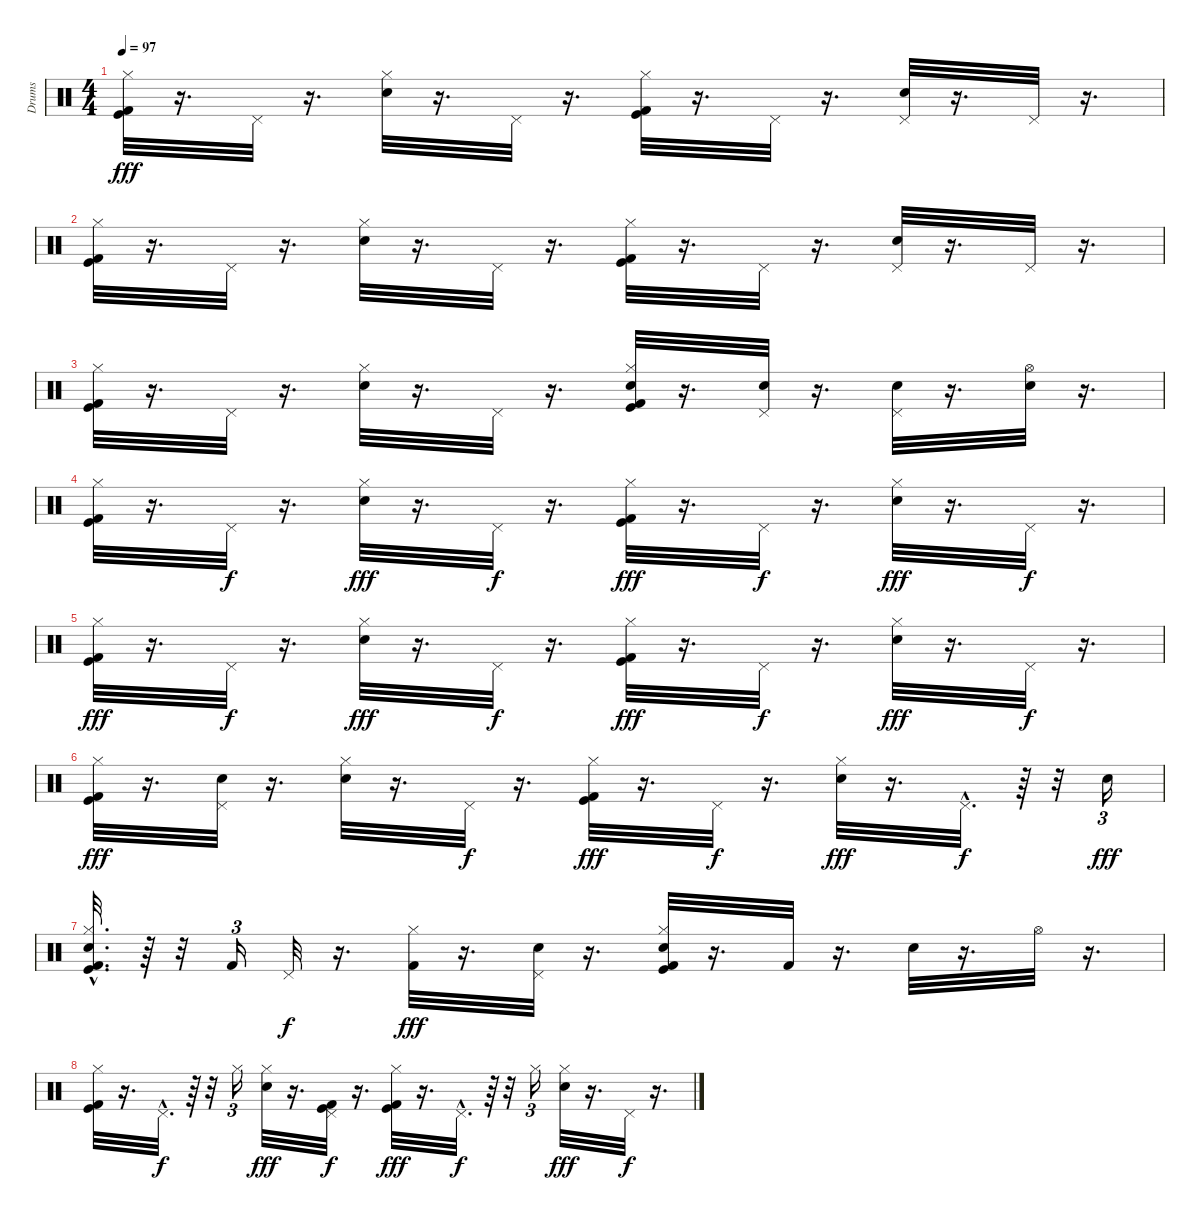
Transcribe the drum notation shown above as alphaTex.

\track ("Drums" "Drums") {instrument percussion}
\staff {score}
\articulation defaults
\ts (4 4)
\tempo 97
\clef neutral
\ks c
("Kick (hit)" "Kick (hit) 2" "Hi-Hat (closed)").32{dy fff} r.16{d} "Pedal Hi-Hat (hit)".32 r.16{d} ("Hi-Hat (closed)" "Snare (hit) 2").32 r.16{d} "Pedal Hi-Hat (hit)".32 r.16{d} ("Kick (hit)" "Kick (hit) 2" "Hi-Hat (closed)").32 r.16{d} "Pedal Hi-Hat (hit)".32 r.16{d} ("Pedal Hi-Hat (hit)" "Snare (hit) 2").32 r.16{d} "Pedal Hi-Hat (hit)".32 r.16{d} |
("Kick (hit)" "Kick (hit) 2" "Hi-Hat (closed)").32 r.16{d} "Pedal Hi-Hat (hit)".32 r.16{d} ("Hi-Hat (closed)" "Snare (hit) 2").32 r.16{d} "Pedal Hi-Hat (hit)".32 r.16{d} ("Kick (hit)" "Kick (hit) 2" "Hi-Hat (closed)").32 r.16{d} "Pedal Hi-Hat (hit)".32 r.16{d} ("Pedal Hi-Hat (hit)" "Snare (hit) 2").32 r.16{d} "Pedal Hi-Hat (hit)".32 r.16{d} |
("Kick (hit)" "Kick (hit) 2" "Hi-Hat (closed)").32 r.16{d} "Pedal Hi-Hat (hit)".32 r.16{d} ("Snare (hit) 2" "Hi-Hat (closed)").32 r.16{d} "Pedal Hi-Hat (hit)".32 r.16{d} ("Snare (hit) 2" "Kick (hit)" "Kick (hit) 2" "Hi-Hat (closed)").32 r.16{d} ("Snare (hit) 2" "Pedal Hi-Hat (hit)").32 r.16{d} ("Pedal Hi-Hat (hit)" "Snare (hit) 2").32 r.16{d} ("Snare (hit) 2" "Hi-Hat (open)").32 r.16{d} |
("Kick (hit)" "Kick (hit) 2" "Hi-Hat (closed)").32 r.16{d} "Pedal Hi-Hat (hit)".32{dy f} r.16{d} ("Hi-Hat (closed)" "Snare (hit) 2").32{dy fff} r.16{d} "Pedal Hi-Hat (hit)".32{dy f} r.16{d} ("Kick (hit)" "Kick (hit) 2" "Hi-Hat (closed)").32{dy fff} r.16{d} "Pedal Hi-Hat (hit)".32{dy f} r.16{d} ("Hi-Hat (closed)" "Snare (hit) 2").32{dy fff} r.16{d} "Pedal Hi-Hat (hit)".32{dy f} r.16{d} |
("Kick (hit)" "Kick (hit) 2" "Hi-Hat (closed)").32{dy fff} r.16{d} "Pedal Hi-Hat (hit)".32{dy f} r.16{d} ("Hi-Hat (closed)" "Snare (hit) 2").32{dy fff} r.16{d} "Pedal Hi-Hat (hit)".32{dy f} r.16{d} ("Kick (hit)" "Kick (hit) 2" "Hi-Hat (closed)").32{dy fff} r.16{d} "Pedal Hi-Hat (hit)".32{dy f} r.16{d} ("Hi-Hat (closed)" "Snare (hit) 2").32{dy fff} r.16{d} "Pedal Hi-Hat (hit)".32{dy f} r.16{d} |
("Kick (hit)" "Kick (hit) 2" "Hi-Hat (closed)").32{dy fff} r.16{d} ("Snare (hit) 2" "Pedal Hi-Hat (hit)").32 r.16{d} ("Hi-Hat (closed)" "Snare (hit) 2").32 r.16{d} "Pedal Hi-Hat (hit)".32{dy f} r.16{d} ("Kick (hit)" "Kick (hit) 2" "Hi-Hat (closed)").32{dy fff} r.16{d} "Pedal Hi-Hat (hit)".32{dy f} r.16{d} ("Hi-Hat (closed)" "Snare (hit) 2").32{dy fff} r.16{d} "Pedal Hi-Hat (hit)"{hac}.32{d dy f} r.64 r.32 "Snare (hit) 2".16{tu (3 2) dy fff} |
("Snare (hit) 2"{hac} "Kick (hit)"{hac} "Kick (hit) 2"{hac} "Hi-Hat (closed)"{hac}).32{d} r.64 r.32 "Kick (hit) 2".16{tu (3 2)} "Pedal Hi-Hat (hit)".32{dy f} r.16{d} ("Kick (hit) 2" "Hi-Hat (closed)").32{dy fff} r.16{d} ("Snare (hit) 2" "Pedal Hi-Hat (hit)").32 r.16{d} ("Snare (hit) 2" "Kick (hit)" "Kick (hit) 2" "Hi-Hat (closed)").32 r.16{d} "Kick (hit) 2".32 r.16{d} "Snare (hit) 2".32 r.16{d} "Hi-Hat (open)".32 r.16{d} |
("Kick (hit)" "Kick (hit) 2" "Hi-Hat (closed)").32 r.16{d} "Pedal Hi-Hat (hit)"{hac}.32{d dy f} r.64 r.32 "Hi-Hat (closed)".16{tu (3 2)} ("Hi-Hat (closed)" "Snare (hit) 2").32{dy fff} r.16{d} ("Kick (hit) 2" "Kick (hit)" "Pedal Hi-Hat (hit)").32{dy f} r.16{d} ("Kick (hit)" "Kick (hit) 2" "Hi-Hat (closed)").32{dy fff} r.16{d} "Pedal Hi-Hat (hit)"{hac}.32{d dy f} r.64 r.32 "Hi-Hat (closed)".16{tu (3 2)} ("Hi-Hat (closed)" "Snare (hit) 2").32{dy fff} r.16{d} "Pedal Hi-Hat (hit)".32{dy f} r.16{d}
